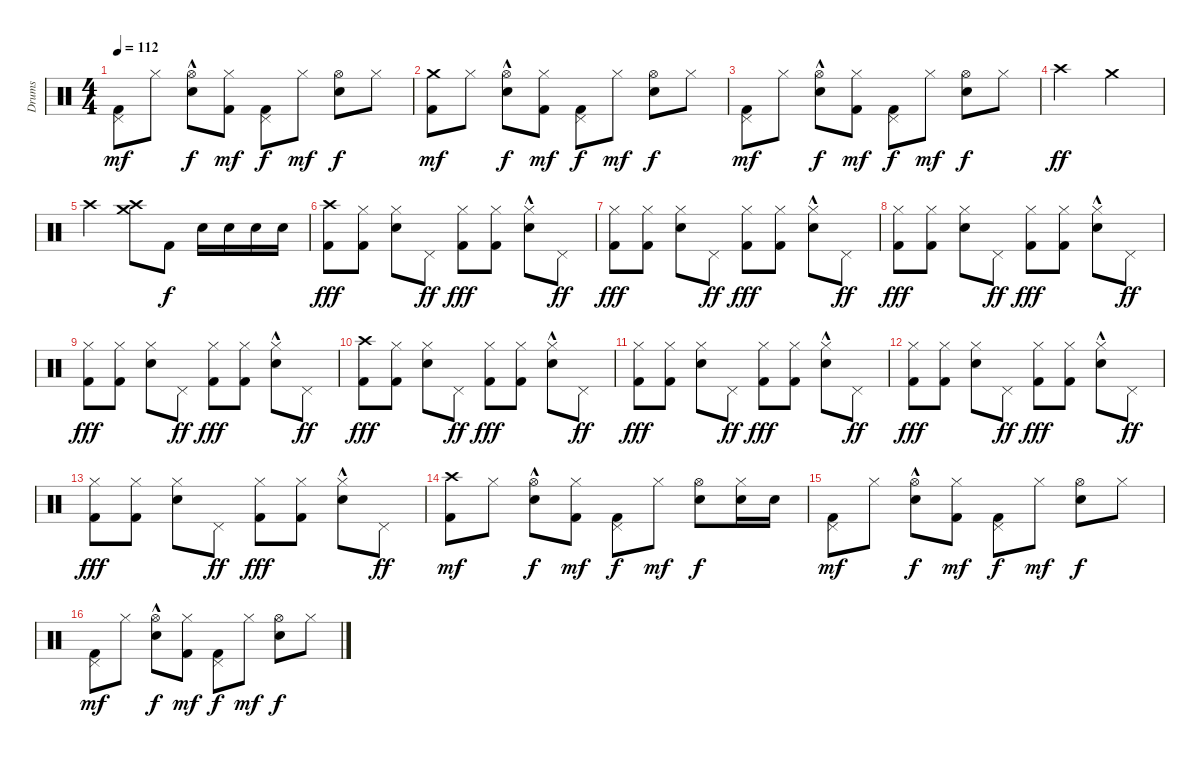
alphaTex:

\track ("Drums" "Drums") {instrument percussion}
\staff {score}
\articulation defaults
\ts (4 4)
\tempo 112
\clef neutral
\ks c
("Pedal Hi-Hat (hit)" "Kick (hit) 2").8{dy mf} "Hi-Hat (closed)".8 ("Hi-Hat (open)"{hac} "Snare (hit) 2").8{dy f} ("Hi-Hat (closed)" "Kick (hit) 2").8{dy mf} ("Pedal Hi-Hat (hit)" "Kick (hit) 2").8{dy f} "Hi-Hat (closed)".8{dy mf} ("Hi-Hat (open)" "Snare (hit) 2").8{dy f} "Hi-Hat (closed)".8 |
("Crash medium (hit)" "Kick (hit) 2").8{dy mf} "Hi-Hat (closed)".8 ("Hi-Hat (open)"{hac} "Snare (hit) 2").8{dy f} ("Hi-Hat (closed)" "Kick (hit) 2").8{dy mf} ("Pedal Hi-Hat (hit)" "Kick (hit) 2").8{dy f} "Hi-Hat (closed)".8{dy mf} ("Hi-Hat (open)" "Snare (hit) 2").8{dy f} "Hi-Hat (closed)".8 |
("Pedal Hi-Hat (hit)" "Kick (hit) 2").8{dy mf} "Hi-Hat (closed)".8 ("Hi-Hat (open)"{hac} "Snare (hit) 2").8{dy f} ("Hi-Hat (closed)" "Kick (hit) 2").8{dy mf} ("Pedal Hi-Hat (hit)" "Kick (hit) 2").8{dy f} "Hi-Hat (closed)".8{dy mf} ("Hi-Hat (open)" "Snare (hit) 2").8{dy f} "Hi-Hat (closed)".8 |
"Crash high (hit)".2{dy ff} "Crash medium (hit)".2 |
"Crash high (hit)".2 ("Crash high (hit)" "Crash medium (hit)").8 "Kick (hit) 2".8{dy f} "Snare (hit) 2".16 "Snare (hit) 2".16 "Snare (hit) 2".16 "Snare (hit) 2".16 |
("Crash high (hit)" "Kick (hit) 2").8{dy fff} ("Hi-Hat (closed)" "Kick (hit) 2").8 ("Hi-Hat (closed)" "Snare (hit) 2").8 "Pedal Hi-Hat (hit)".8{dy ff} ("Hi-Hat (closed)" "Kick (hit) 2").8{dy fff} ("Hi-Hat (closed)" "Kick (hit) 2").8 ("Hi-Hat (closed)"{hac} "Snare (hit) 2").8 "Pedal Hi-Hat (hit)".8{dy ff} |
("Hi-Hat (closed)" "Kick (hit) 2").8{dy fff} ("Hi-Hat (closed)" "Kick (hit) 2").8 ("Hi-Hat (closed)" "Snare (hit) 2").8 "Pedal Hi-Hat (hit)".8{dy ff} ("Hi-Hat (closed)" "Kick (hit) 2").8{dy fff} ("Hi-Hat (closed)" "Kick (hit) 2").8 ("Hi-Hat (closed)"{hac} "Snare (hit) 2").8 "Pedal Hi-Hat (hit)".8{dy ff} |
("Hi-Hat (closed)" "Kick (hit) 2").8{dy fff} ("Hi-Hat (closed)" "Kick (hit) 2").8 ("Hi-Hat (closed)" "Snare (hit) 2").8 "Pedal Hi-Hat (hit)".8{dy ff} ("Hi-Hat (closed)" "Kick (hit) 2").8{dy fff} ("Hi-Hat (closed)" "Kick (hit) 2").8 ("Hi-Hat (closed)"{hac} "Snare (hit) 2").8 "Pedal Hi-Hat (hit)".8{dy ff} |
("Hi-Hat (closed)" "Kick (hit) 2").8{dy fff} ("Hi-Hat (closed)" "Kick (hit) 2").8 ("Hi-Hat (closed)" "Snare (hit) 2").8 "Pedal Hi-Hat (hit)".8{dy ff} ("Hi-Hat (closed)" "Kick (hit) 2").8{dy fff} ("Hi-Hat (closed)" "Kick (hit) 2").8 ("Hi-Hat (closed)"{hac} "Snare (hit) 2").8 "Pedal Hi-Hat (hit)".8{dy ff} |
("Crash high (hit)" "Kick (hit) 2").8{dy fff} ("Hi-Hat (closed)" "Kick (hit) 2").8 ("Hi-Hat (closed)" "Snare (hit) 2").8 "Pedal Hi-Hat (hit)".8{dy ff} ("Hi-Hat (closed)" "Kick (hit) 2").8{dy fff} ("Hi-Hat (closed)" "Kick (hit) 2").8 ("Hi-Hat (closed)"{hac} "Snare (hit) 2").8 "Pedal Hi-Hat (hit)".8{dy ff} |
("Hi-Hat (closed)" "Kick (hit) 2").8{dy fff} ("Hi-Hat (closed)" "Kick (hit) 2").8 ("Hi-Hat (closed)" "Snare (hit) 2").8 "Pedal Hi-Hat (hit)".8{dy ff} ("Hi-Hat (closed)" "Kick (hit) 2").8{dy fff} ("Hi-Hat (closed)" "Kick (hit) 2").8 ("Hi-Hat (closed)"{hac} "Snare (hit) 2").8 "Pedal Hi-Hat (hit)".8{dy ff} |
("Hi-Hat (closed)" "Kick (hit) 2").8{dy fff} ("Hi-Hat (closed)" "Kick (hit) 2").8 ("Hi-Hat (closed)" "Snare (hit) 2").8 "Pedal Hi-Hat (hit)".8{dy ff} ("Hi-Hat (closed)" "Kick (hit) 2").8{dy fff} ("Hi-Hat (closed)" "Kick (hit) 2").8 ("Hi-Hat (closed)"{hac} "Snare (hit) 2").8 "Pedal Hi-Hat (hit)".8{dy ff} |
("Hi-Hat (closed)" "Kick (hit) 2").8{dy fff} ("Hi-Hat (closed)" "Kick (hit) 2").8 ("Hi-Hat (closed)" "Snare (hit) 2").8 "Pedal Hi-Hat (hit)".8{dy ff} ("Hi-Hat (closed)" "Kick (hit) 2").8{dy fff} ("Hi-Hat (closed)" "Kick (hit) 2").8 ("Hi-Hat (closed)"{hac} "Snare (hit) 2").8 "Pedal Hi-Hat (hit)".8{dy ff} |
("Crash high (hit)" "Kick (hit) 2").8{dy mf} "Hi-Hat (closed)".8 ("Hi-Hat (open)"{hac} "Snare (hit) 2").8{dy f} ("Hi-Hat (closed)" "Kick (hit) 2").8{dy mf} ("Pedal Hi-Hat (hit)" "Kick (hit) 2").8{dy f} "Hi-Hat (closed)".8{dy mf} ("Hi-Hat (open)" "Snare (hit) 2").8{dy f} ("Hi-Hat (closed)" "Snare (hit) 2").16 "Snare (hit) 2".16 |
("Pedal Hi-Hat (hit)" "Kick (hit) 2").8{dy mf} "Hi-Hat (closed)".8 ("Hi-Hat (open)"{hac} "Snare (hit) 2").8{dy f} ("Hi-Hat (closed)" "Kick (hit) 2").8{dy mf} ("Pedal Hi-Hat (hit)" "Kick (hit) 2").8{dy f} "Hi-Hat (closed)".8{dy mf} ("Hi-Hat (open)" "Snare (hit) 2").8{dy f} "Hi-Hat (closed)".8 |
("Pedal Hi-Hat (hit)" "Kick (hit) 2").8{dy mf} "Hi-Hat (closed)".8 ("Hi-Hat (open)"{hac} "Snare (hit) 2").8{dy f} ("Hi-Hat (closed)" "Kick (hit) 2").8{dy mf} ("Pedal Hi-Hat (hit)" "Kick (hit) 2").8{dy f} "Hi-Hat (closed)".8{dy mf} ("Hi-Hat (open)" "Snare (hit) 2").8{dy f} "Hi-Hat (closed)".8
